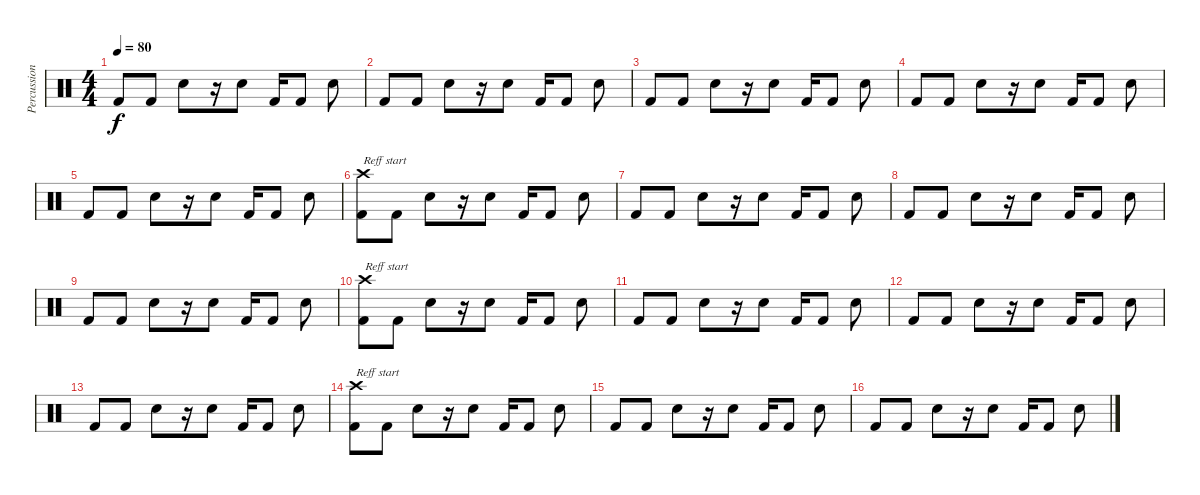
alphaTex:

\track ("Percussion" "Percussion") {instrument percussion}
\staff {score}
\articulation defaults
\ts (4 4)
\tempo 80
\clef neutral
\ks c "Kick (hit) 2".8{dy f} "Kick (hit) 2".8 "Electric Snare (hit)".8
r.16 "Electric Snare (hit)".8 "Kick (hit) 2".16 "Kick (hit) 2".8 "Electric Snare (hit)".8 |
"Kick (hit) 2".8 "Kick (hit) 2".8 "Electric Snare (hit)".8 r.16 "Electric Snare (hit)".8 "Kick (hit) 2".16 "Kick (hit) 2".8 "Electric Snare (hit)".8 |
"Kick (hit) 2".8 "Kick (hit) 2".8 "Electric Snare (hit)".8 r.16 "Electric Snare (hit)".8 "Kick (hit) 2".16 "Kick (hit) 2".8 "Electric Snare (hit)".8 |
"Kick (hit) 2".8 "Kick (hit) 2".8 "Electric Snare (hit)".8 r.16 "Electric Snare (hit)".8 "Kick (hit) 2".16 "Kick (hit) 2".8 "Electric Snare (hit)".8 |
"Kick (hit) 2".8 "Kick (hit) 2".8 "Electric Snare (hit)".8 r.16 "Electric Snare (hit)".8 "Kick (hit) 2".16 "Kick (hit) 2".8 "Electric Snare (hit)".8 |
("Crash high (hit)" "Kick (hit) 2").8{txt "Reff start"} "Kick (hit) 2".8 "Electric Snare (hit)".8 r.16 "Electric Snare (hit)".8 "Kick (hit) 2".16 "Kick (hit) 2".8 "Electric Snare (hit)".8 |
"Kick (hit) 2".8 "Kick (hit) 2".8 "Electric Snare (hit)".8 r.16 "Electric Snare (hit)".8 "Kick (hit) 2".16 "Kick (hit) 2".8 "Electric Snare (hit)".8 |
"Kick (hit) 2".8 "Kick (hit) 2".8 "Electric Snare (hit)".8 r.16 "Electric Snare (hit)".8 "Kick (hit) 2".16 "Kick (hit) 2".8 "Electric Snare (hit)".8 |
"Kick (hit) 2".8 "Kick (hit) 2".8 "Electric Snare (hit)".8 r.16 "Electric Snare (hit)".8 "Kick (hit) 2".16 "Kick (hit) 2".8 "Electric Snare (hit)".8 |
("Crash high (hit)" "Kick (hit) 2").8{txt "Reff start"} "Kick (hit) 2".8 "Electric Snare (hit)".8 r.16 "Electric Snare (hit)".8 "Kick (hit) 2".16 "Kick (hit) 2".8 "Electric Snare (hit)".8 |
"Kick (hit) 2".8 "Kick (hit) 2".8 "Electric Snare (hit)".8 r.16 "Electric Snare (hit)".8 "Kick (hit) 2".16 "Kick (hit) 2".8 "Electric Snare (hit)".8 |
"Kick (hit) 2".8 "Kick (hit) 2".8 "Electric Snare (hit)".8 r.16 "Electric Snare (hit)".8 "Kick (hit) 2".16 "Kick (hit) 2".8 "Electric Snare (hit)".8 |
"Kick (hit) 2".8 "Kick (hit) 2".8 "Electric Snare (hit)".8 r.16 "Electric Snare (hit)".8 "Kick (hit) 2".16 "Kick (hit) 2".8 "Electric Snare (hit)".8 |
("Crash high (hit)" "Kick (hit) 2").8{txt "Reff start"} "Kick (hit) 2".8 "Electric Snare (hit)".8 r.16 "Electric Snare (hit)".8 "Kick (hit) 2".16 "Kick (hit) 2".8 "Electric Snare (hit)".8 |
"Kick (hit) 2".8 "Kick (hit) 2".8 "Electric Snare (hit)".8 r.16 "Electric Snare (hit)".8 "Kick (hit) 2".16 "Kick (hit) 2".8 "Electric Snare (hit)".8 |
"Kick (hit) 2".8 "Kick (hit) 2".8 "Electric Snare (hit)".8 r.16 "Electric Snare (hit)".8 "Kick (hit) 2".16 "Kick (hit) 2".8 "Electric Snare (hit)".8
